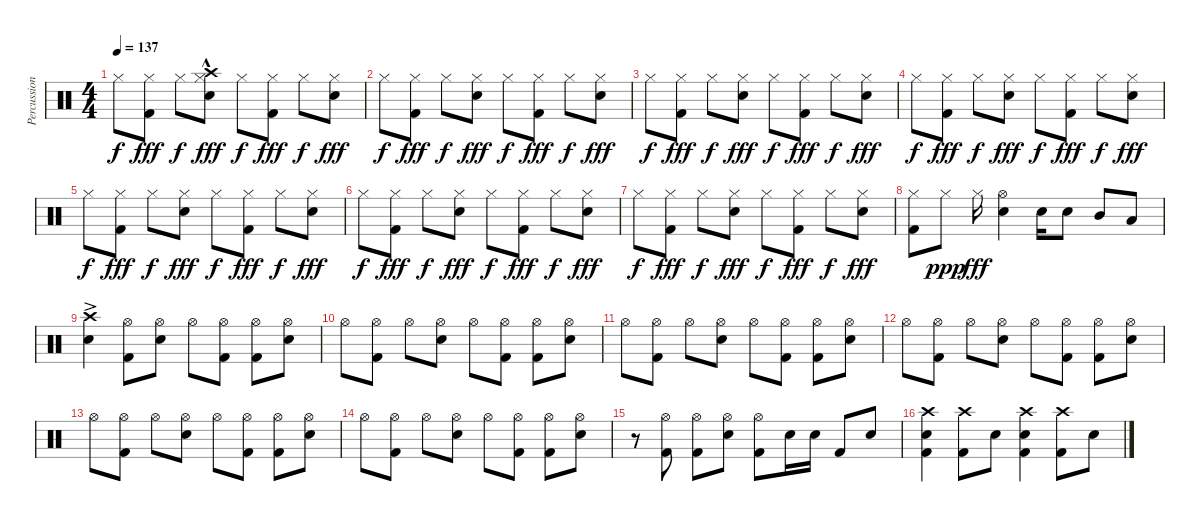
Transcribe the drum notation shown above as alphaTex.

\track ("Percussion" "Percussion") {solo instrument percussion}
\staff {score}
\articulation defaults
\ts (4 4)
\tempo 137
\clef neutral
\ks c "Hi-Hat (closed)".8{dy f}
("Hi-Hat (closed)" "Kick (hit) 2").8{dy fff} "Hi-Hat (closed)".8{dy f} ("Hi-Hat (closed)"{hac} "Electric Snare (hit)" "Crash high (hit)").8{dy fff} "Hi-Hat (closed)".8{dy f} ("Hi-Hat (closed)" "Kick (hit) 2").8{dy fff} "Hi-Hat (closed)".8{dy f} ("Hi-Hat (closed)" "Electric Snare (hit)").8{dy fff} |
"Hi-Hat (closed)".8{dy f} ("Hi-Hat (closed)" "Kick (hit) 2").8{dy fff} "Hi-Hat (closed)".8{dy f} ("Hi-Hat (closed)" "Electric Snare (hit)").8{dy fff} "Hi-Hat (closed)".8{dy f} ("Hi-Hat (closed)" "Kick (hit) 2").8{dy fff} "Hi-Hat (closed)".8{dy f} ("Hi-Hat (closed)" "Electric Snare (hit)").8{dy fff} |
"Hi-Hat (closed)".8{dy f} ("Hi-Hat (closed)" "Kick (hit) 2").8{dy fff} "Hi-Hat (closed)".8{dy f} ("Hi-Hat (closed)" "Electric Snare (hit)").8{dy fff} "Hi-Hat (closed)".8{dy f} ("Hi-Hat (closed)" "Kick (hit) 2").8{dy fff} "Hi-Hat (closed)".8{dy f} ("Hi-Hat (closed)" "Electric Snare (hit)").8{dy fff} |
"Hi-Hat (closed)".8{dy f} ("Hi-Hat (closed)" "Kick (hit) 2").8{dy fff} "Hi-Hat (closed)".8{dy f} ("Hi-Hat (closed)" "Electric Snare (hit)").8{dy fff} "Hi-Hat (closed)".8{dy f} ("Hi-Hat (closed)" "Kick (hit) 2").8{dy fff} "Hi-Hat (closed)".8{dy f} ("Hi-Hat (closed)" "Electric Snare (hit)").8{dy fff} |
"Hi-Hat (closed)".8{dy f} ("Hi-Hat (closed)" "Kick (hit) 2").8{dy fff} "Hi-Hat (closed)".8{dy f} ("Hi-Hat (closed)" "Electric Snare (hit)").8{dy fff} "Hi-Hat (closed)".8{dy f} ("Hi-Hat (closed)" "Kick (hit) 2").8{dy fff} "Hi-Hat (closed)".8{dy f} ("Hi-Hat (closed)" "Electric Snare (hit)").8{dy fff} |
"Hi-Hat (closed)".8{dy f} ("Hi-Hat (closed)" "Kick (hit) 2").8{dy fff} "Hi-Hat (closed)".8{dy f} ("Hi-Hat (closed)" "Electric Snare (hit)").8{dy fff} "Hi-Hat (closed)".8{dy f} ("Hi-Hat (closed)" "Kick (hit) 2").8{dy fff} "Hi-Hat (closed)".8{dy f} ("Hi-Hat (closed)" "Electric Snare (hit)").8{dy fff} |
"Hi-Hat (closed)".8{dy f} ("Hi-Hat (closed)" "Kick (hit) 2").8{dy fff} "Hi-Hat (closed)".8{dy f} ("Hi-Hat (closed)" "Electric Snare (hit)").8{dy fff} "Hi-Hat (closed)".8{dy f} ("Hi-Hat (closed)" "Kick (hit) 2").8{dy fff} "Hi-Hat (closed)".8{dy f} ("Hi-Hat (closed)" "Electric Snare (hit)").8{dy fff} |
("Hi-Hat (closed)" "Kick (hit) 2").8 "Hi-Hat (closed)".8{dy ppp} "Hi-Hat (closed)".16{dy fff} ("Hi-Hat (open)" "Electric Snare (hit)").4 "Electric Snare (hit)".16 "Electric Snare (hit)".8 "Mid Tom (hit)".8 "Low Tom (hit)".8 |
("Crash high (hit)"{ac} "Electric Snare (hit)"{ac}).4 ("Kick (hit) 2" "Hi-Hat (open)").8 ("Electric Snare (hit)" "Hi-Hat (open)").8 "Hi-Hat (open)".8 ("Kick (hit) 2" "Hi-Hat (open)").8 ("Kick (hit) 2" "Hi-Hat (open)").8 ("Electric Snare (hit)" "Hi-Hat (open)").8 |
"Hi-Hat (open)".8 ("Kick (hit) 2" "Hi-Hat (open)").8 "Hi-Hat (open)".8 ("Electric Snare (hit)" "Hi-Hat (open)").8 "Hi-Hat (open)".8 ("Kick (hit) 2" "Hi-Hat (open)").8 ("Kick (hit) 2" "Hi-Hat (open)").8 ("Electric Snare (hit)" "Hi-Hat (open)").8 |
"Hi-Hat (open)".8 ("Kick (hit) 2" "Hi-Hat (open)").8 "Hi-Hat (open)".8 ("Electric Snare (hit)" "Hi-Hat (open)").8 "Hi-Hat (open)".8 ("Kick (hit) 2" "Hi-Hat (open)").8 ("Kick (hit) 2" "Hi-Hat (open)").8 ("Electric Snare (hit)" "Hi-Hat (open)").8 |
"Hi-Hat (open)".8 ("Kick (hit) 2" "Hi-Hat (open)").8 "Hi-Hat (open)".8 ("Electric Snare (hit)" "Hi-Hat (open)").8 "Hi-Hat (open)".8 ("Kick (hit) 2" "Hi-Hat (open)").8 ("Kick (hit) 2" "Hi-Hat (open)").8 ("Electric Snare (hit)" "Hi-Hat (open)").8 |
"Hi-Hat (open)".8 ("Kick (hit) 2" "Hi-Hat (open)").8 "Hi-Hat (open)".8 ("Electric Snare (hit)" "Hi-Hat (open)").8 "Hi-Hat (open)".8 ("Kick (hit) 2" "Hi-Hat (open)").8 ("Kick (hit) 2" "Hi-Hat (open)").8 ("Electric Snare (hit)" "Hi-Hat (open)").8 |
"Hi-Hat (open)".8 ("Kick (hit) 2" "Hi-Hat (open)").8 "Hi-Hat (open)".8 ("Electric Snare (hit)" "Hi-Hat (open)").8 "Hi-Hat (open)".8 ("Kick (hit) 2" "Hi-Hat (open)").8 ("Kick (hit) 2" "Hi-Hat (open)").8 ("Electric Snare (hit)" "Hi-Hat (open)").8 |
r.8 ("Hi-Hat (open)" "Kick (hit) 2").8 ("Hi-Hat (open)" "Kick (hit) 2").8 ("Hi-Hat (open)" "Electric Snare (hit)").8 ("Hi-Hat (open)" "Kick (hit) 2").8 "Electric Snare (hit)".16 "Electric Snare (hit)".16 "Kick (hit) 2".8 "Electric Snare (hit)".8 |
("Crash high (hit)" "Electric Snare (hit)" "Kick (hit) 2").4 ("Kick (hit) 2" "Crash high (hit)").8 "Electric Snare (hit)".8 ("Kick (hit) 2" "Electric Snare (hit)" "Crash high (hit)").4 ("Kick (hit) 2" "Crash high (hit)").8 "Electric Snare (hit)".8
